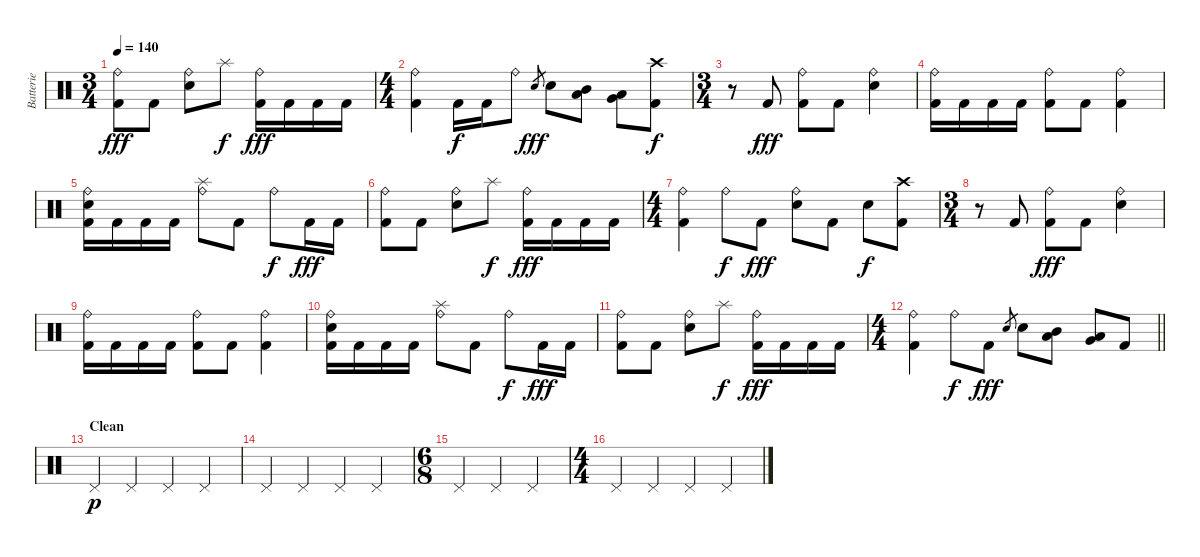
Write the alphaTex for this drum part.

\track ("Batterie" "Batterie") {instrument percussion}
\staff {score}
\articulation defaults
\ts (3 4)
\tempo 140
\clef neutral
\ks c
("Ride (bell)" "Kick (hit) 2").8{dy fff} "Kick (hit) 2".8 ("Ride (bell)" "Electric Snare (hit)").8 "Splash (hit)".8{dy f} ("Ride (bell)" "Kick (hit) 2").16{dy fff} "Kick (hit) 2".16 "Kick (hit) 2".16 "Kick (hit) 2".16 |
\ts (4 4)
("Ride (bell)" "Kick (hit) 2").4 "Kick (hit) 2".16{dy f} "Kick (hit) 2".16 "Ride (bell)".8 "Electric Snare (hit)".8{gr dy fff} "Electric Snare (hit)".8 ("Mid Tom (hit)" "Low Tom (hit)").8 ("Very Low Tom (hit)" "Low Floor Tom (hit)").8 ("Crash high (hit)" "Kick (hit) 2").8{dy f} |
\ts (3 4)
r.8 "Kick (hit) 2".8{dy fff} ("Ride (bell)" "Kick (hit) 2").8 "Kick (hit) 2".8 ("Ride (bell)" "Electric Snare (hit)").4 |
("Ride (bell)" "Kick (hit) 2").16 "Kick (hit) 2".16 "Kick (hit) 2".16 "Kick (hit) 2".16 ("Ride (bell)" "Kick (hit) 2").8 "Kick (hit) 2".8 ("Ride (bell)" "Kick (hit) 2").4 |
("Ride (bell)" "Electric Snare (hit)" "Kick (hit) 2").16 "Kick (hit) 2".16 "Kick (hit) 2".16 "Kick (hit) 2".16 ("Ride (bell)" "Splash (hit)").8 "Kick (hit) 2".8 "Ride (bell)".8{dy f} "Kick (hit) 2".16{dy fff} "Kick (hit) 2".16 |
("Ride (bell)" "Kick (hit) 2").8 "Kick (hit) 2".8 ("Ride (bell)" "Electric Snare (hit)").8 "Splash (hit)".8{dy f} ("Ride (bell)" "Kick (hit) 2").16{dy fff} "Kick (hit) 2".16 "Kick (hit) 2".16 "Kick (hit) 2".16 |
\ts (4 4)
("Ride (bell)" "Kick (hit) 2").4 "Ride (bell)".8{dy f} "Kick (hit) 2".8{dy fff} ("Ride (bell)" "Electric Snare (hit)").8 "Kick (hit) 2".8 "Electric Snare (hit)".8{dy f} ("Crash high (hit)" "Kick (hit) 2").8 |
\ts (3 4)
r.8 "Kick (hit) 2".8 ("Ride (bell)" "Kick (hit) 2").8{dy fff} "Kick (hit) 2".8 ("Ride (bell)" "Electric Snare (hit)").4 |
("Ride (bell)" "Kick (hit) 2").16 "Kick (hit) 2".16 "Kick (hit) 2".16 "Kick (hit) 2".16 ("Ride (bell)" "Kick (hit) 2").8 "Kick (hit) 2".8 ("Ride (bell)" "Kick (hit) 2").4 |
("Ride (bell)" "Electric Snare (hit)" "Kick (hit) 2").16 "Kick (hit) 2".16 "Kick (hit) 2".16 "Kick (hit) 2".16 ("Ride (bell)" "Splash (hit)").8 "Kick (hit) 2".8 "Ride (bell)".8{dy f} "Kick (hit) 2".16{dy fff} "Kick (hit) 2".16 |
("Ride (bell)" "Kick (hit) 2").8 "Kick (hit) 2".8 ("Ride (bell)" "Electric Snare (hit)").8 "Splash (hit)".8{dy f} ("Ride (bell)" "Kick (hit) 2").16{dy fff} "Kick (hit) 2".16 "Kick (hit) 2".16 "Kick (hit) 2".16 |
\ts (4 4)
\barLineRight lightlight
("Ride (bell)" "Kick (hit) 2").4 "Ride (bell)".8{dy f} "Kick (hit) 2".8{dy fff} "Electric Snare (hit)".8{gr} "Electric Snare (hit)".8 ("Mid Tom (hit)" "Low Tom (hit)").8 ("Very Low Tom (hit)" "Low Floor Tom (hit)").8 "Kick (hit) 2".8 |
\section ("" "Clean")
"Pedal Hi-Hat (hit)".4{dy p} "Pedal Hi-Hat (hit)".4 "Pedal Hi-Hat (hit)".4 "Pedal Hi-Hat (hit)".4 |
"Pedal Hi-Hat (hit)".4 "Pedal Hi-Hat (hit)".4 "Pedal Hi-Hat (hit)".4 "Pedal Hi-Hat (hit)".4 |
\ts (6 8)
"Pedal Hi-Hat (hit)".4 "Pedal Hi-Hat (hit)".4 "Pedal Hi-Hat (hit)".4 |
\ts (4 4)
"Pedal Hi-Hat (hit)".4 "Pedal Hi-Hat (hit)".4 "Pedal Hi-Hat (hit)".4 "Pedal Hi-Hat (hit)".4
